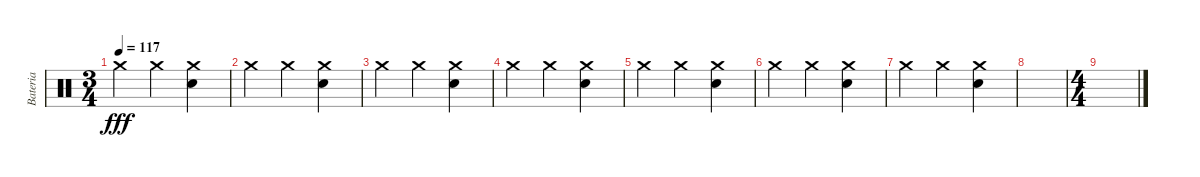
\track ("Bateria" "Bateria") {instrument percussion}
\staff {score}
\articulation defaults
\ts (3 4)
\tempo 117
\clef neutral
\ks c "Crash medium (hit)".4{dy fff} "Crash medium (hit)".4
("Crash medium (hit)" "Snare (hit) 2").4 |
"Crash medium (hit)".4 "Crash medium (hit)".4 ("Crash medium (hit)" "Snare (hit) 2").4 |
"Crash medium (hit)".4 "Crash medium (hit)".4 ("Crash medium (hit)" "Snare (hit) 2").4 |
"Crash medium (hit)".4 "Crash medium (hit)".4 ("Crash medium (hit)" "Snare (hit) 2").4 |
"Crash medium (hit)".4 "Crash medium (hit)".4 ("Crash medium (hit)" "Snare (hit) 2").4 |
"Crash medium (hit)".4 "Crash medium (hit)".4 ("Crash medium (hit)" "Snare (hit) 2").4 |
"Crash medium (hit)".4 "Crash medium (hit)".4 ("Crash medium (hit)" "Snare (hit) 2").4 |
|
\ts (4 4)
